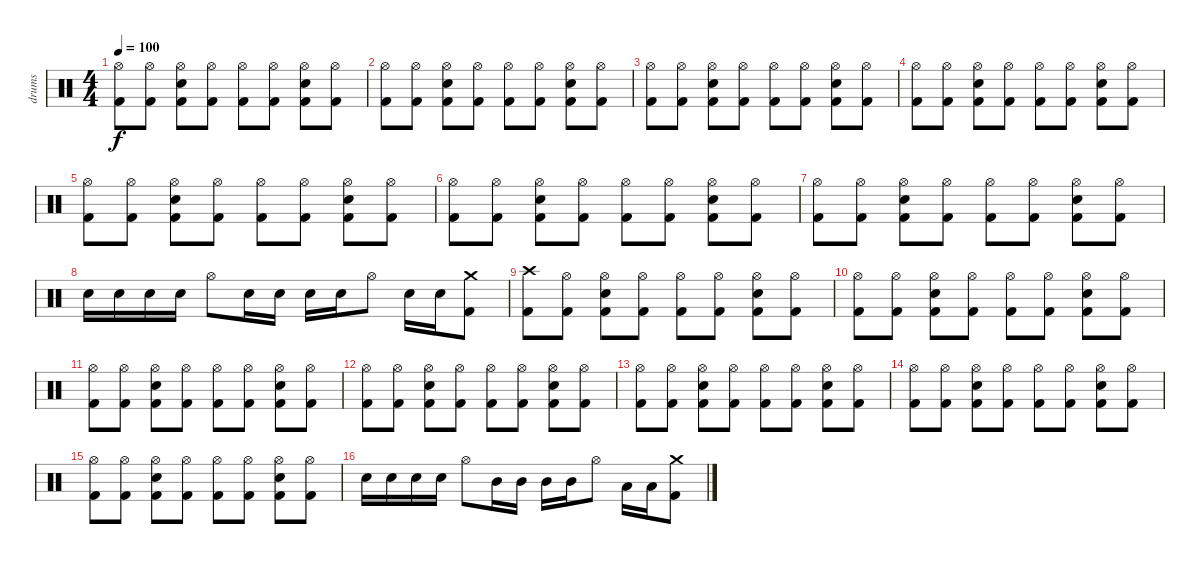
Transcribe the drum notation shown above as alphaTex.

\track ("drums" "drums") {instrument percussion}
\staff {score}
\articulation defaults
\ts (4 4)
\tempo 100
\clef neutral
\ks c
("Hi-Hat (open)" "Kick (hit) 2").8{dy f} ("Hi-Hat (open)" "Kick (hit) 2").8 ("Hi-Hat (open)" "Snare (hit) 2" "Kick (hit) 2").8 ("Hi-Hat (open)" "Kick (hit) 2").8 ("Hi-Hat (open)" "Kick (hit) 2").8 ("Hi-Hat (open)" "Kick (hit) 2").8 ("Hi-Hat (open)" "Snare (hit) 2" "Kick (hit) 2").8 ("Hi-Hat (open)" "Kick (hit) 2").8 |
("Hi-Hat (open)" "Kick (hit) 2").8 ("Hi-Hat (open)" "Kick (hit) 2").8 ("Hi-Hat (open)" "Snare (hit) 2" "Kick (hit) 2").8 ("Hi-Hat (open)" "Kick (hit) 2").8 ("Hi-Hat (open)" "Kick (hit) 2").8 ("Hi-Hat (open)" "Kick (hit) 2").8 ("Hi-Hat (open)" "Snare (hit) 2" "Kick (hit) 2").8 ("Hi-Hat (open)" "Kick (hit) 2").8 |
("Hi-Hat (open)" "Kick (hit) 2").8 ("Hi-Hat (open)" "Kick (hit) 2").8 ("Hi-Hat (open)" "Snare (hit) 2" "Kick (hit) 2").8 ("Hi-Hat (open)" "Kick (hit) 2").8 ("Hi-Hat (open)" "Kick (hit) 2").8 ("Hi-Hat (open)" "Kick (hit) 2").8 ("Hi-Hat (open)" "Snare (hit) 2" "Kick (hit) 2").8 ("Hi-Hat (open)" "Kick (hit) 2").8 |
("Hi-Hat (open)" "Kick (hit) 2").8 ("Hi-Hat (open)" "Kick (hit) 2").8 ("Hi-Hat (open)" "Snare (hit) 2" "Kick (hit) 2").8 ("Hi-Hat (open)" "Kick (hit) 2").8 ("Hi-Hat (open)" "Kick (hit) 2").8 ("Hi-Hat (open)" "Kick (hit) 2").8 ("Hi-Hat (open)" "Snare (hit) 2" "Kick (hit) 2").8 ("Hi-Hat (open)" "Kick (hit) 2").8 |
("Hi-Hat (open)" "Kick (hit) 2").8 ("Hi-Hat (open)" "Kick (hit) 2").8 ("Hi-Hat (open)" "Snare (hit) 2" "Kick (hit) 2").8 ("Hi-Hat (open)" "Kick (hit) 2").8 ("Hi-Hat (open)" "Kick (hit) 2").8 ("Hi-Hat (open)" "Kick (hit) 2").8 ("Hi-Hat (open)" "Snare (hit) 2" "Kick (hit) 2").8 ("Hi-Hat (open)" "Kick (hit) 2").8 |
("Hi-Hat (open)" "Kick (hit) 2").8 ("Hi-Hat (open)" "Kick (hit) 2").8 ("Hi-Hat (open)" "Snare (hit) 2" "Kick (hit) 2").8 ("Hi-Hat (open)" "Kick (hit) 2").8 ("Hi-Hat (open)" "Kick (hit) 2").8 ("Hi-Hat (open)" "Kick (hit) 2").8 ("Hi-Hat (open)" "Snare (hit) 2" "Kick (hit) 2").8 ("Hi-Hat (open)" "Kick (hit) 2").8 |
("Hi-Hat (open)" "Kick (hit) 2").8 ("Hi-Hat (open)" "Kick (hit) 2").8 ("Hi-Hat (open)" "Snare (hit) 2" "Kick (hit) 2").8 ("Hi-Hat (open)" "Kick (hit) 2").8 ("Hi-Hat (open)" "Kick (hit) 2").8 ("Hi-Hat (open)" "Kick (hit) 2").8 ("Hi-Hat (open)" "Snare (hit) 2" "Kick (hit) 2").8 ("Hi-Hat (open)" "Kick (hit) 2").8 |
"Snare (hit) 2".16 "Snare (hit) 2".16 "Snare (hit) 2".16 "Snare (hit) 2".16 "Hi-Hat (open)".8 "Snare (hit) 2".16 "Snare (hit) 2".16 "Snare (hit) 2".16 "Snare (hit) 2".16 "Hi-Hat (open)".8 "Snare (hit) 2".16 "Snare (hit) 2".16 ("Crash medium (hit)" "Kick (hit) 2").8 |
("Crash high (hit)" "Kick (hit) 2").8 ("Hi-Hat (open)" "Kick (hit) 2").8 ("Hi-Hat (open)" "Snare (hit) 2" "Kick (hit) 2").8 ("Hi-Hat (open)" "Kick (hit) 2").8 ("Hi-Hat (open)" "Kick (hit) 2").8 ("Hi-Hat (open)" "Kick (hit) 2").8 ("Hi-Hat (open)" "Snare (hit) 2" "Kick (hit) 2").8 ("Hi-Hat (open)" "Kick (hit) 2").8 |
("Hi-Hat (open)" "Kick (hit) 2").8 ("Hi-Hat (open)" "Kick (hit) 2").8 ("Hi-Hat (open)" "Snare (hit) 2" "Kick (hit) 2").8 ("Hi-Hat (open)" "Kick (hit) 2").8 ("Hi-Hat (open)" "Kick (hit) 2").8 ("Hi-Hat (open)" "Kick (hit) 2").8 ("Hi-Hat (open)" "Snare (hit) 2" "Kick (hit) 2").8 ("Hi-Hat (open)" "Kick (hit) 2").8 |
("Hi-Hat (open)" "Kick (hit) 2").8 ("Hi-Hat (open)" "Kick (hit) 2").8 ("Hi-Hat (open)" "Snare (hit) 2" "Kick (hit) 2").8 ("Hi-Hat (open)" "Kick (hit) 2").8 ("Hi-Hat (open)" "Kick (hit) 2").8 ("Hi-Hat (open)" "Kick (hit) 2").8 ("Hi-Hat (open)" "Snare (hit) 2" "Kick (hit) 2").8 ("Hi-Hat (open)" "Kick (hit) 2").8 |
("Hi-Hat (open)" "Kick (hit) 2").8 ("Hi-Hat (open)" "Kick (hit) 2").8 ("Hi-Hat (open)" "Snare (hit) 2" "Kick (hit) 2").8 ("Hi-Hat (open)" "Kick (hit) 2").8 ("Hi-Hat (open)" "Kick (hit) 2").8 ("Hi-Hat (open)" "Kick (hit) 2").8 ("Hi-Hat (open)" "Snare (hit) 2" "Kick (hit) 2").8 ("Hi-Hat (open)" "Kick (hit) 2").8 |
("Hi-Hat (open)" "Kick (hit) 2").8 ("Hi-Hat (open)" "Kick (hit) 2").8 ("Hi-Hat (open)" "Snare (hit) 2" "Kick (hit) 2").8 ("Hi-Hat (open)" "Kick (hit) 2").8 ("Hi-Hat (open)" "Kick (hit) 2").8 ("Hi-Hat (open)" "Kick (hit) 2").8 ("Hi-Hat (open)" "Snare (hit) 2" "Kick (hit) 2").8 ("Hi-Hat (open)" "Kick (hit) 2").8 |
("Hi-Hat (open)" "Kick (hit) 2").8 ("Hi-Hat (open)" "Kick (hit) 2").8 ("Hi-Hat (open)" "Snare (hit) 2" "Kick (hit) 2").8 ("Hi-Hat (open)" "Kick (hit) 2").8 ("Hi-Hat (open)" "Kick (hit) 2").8 ("Hi-Hat (open)" "Kick (hit) 2").8 ("Hi-Hat (open)" "Snare (hit) 2" "Kick (hit) 2").8 ("Hi-Hat (open)" "Kick (hit) 2").8 |
("Hi-Hat (open)" "Kick (hit) 2").8 ("Hi-Hat (open)" "Kick (hit) 2").8 ("Hi-Hat (open)" "Snare (hit) 2" "Kick (hit) 2").8 ("Hi-Hat (open)" "Kick (hit) 2").8 ("Hi-Hat (open)" "Kick (hit) 2").8 ("Hi-Hat (open)" "Kick (hit) 2").8 ("Hi-Hat (open)" "Snare (hit) 2" "Kick (hit) 2").8 ("Hi-Hat (open)" "Kick (hit) 2").8 |
"Snare (hit) 2".16 "Snare (hit) 2".16 "Snare (hit) 2".16 "Snare (hit) 2".16 "Hi-Hat (open)".8 "Mid Tom (hit)".16 "Mid Tom (hit)".16 "Mid Tom (hit)".16 "Mid Tom (hit)".16 "Hi-Hat (open)".8 "Low Tom (hit)".16 "Low Tom (hit)".16 ("Crash medium (hit)" "Kick (hit) 2").8
